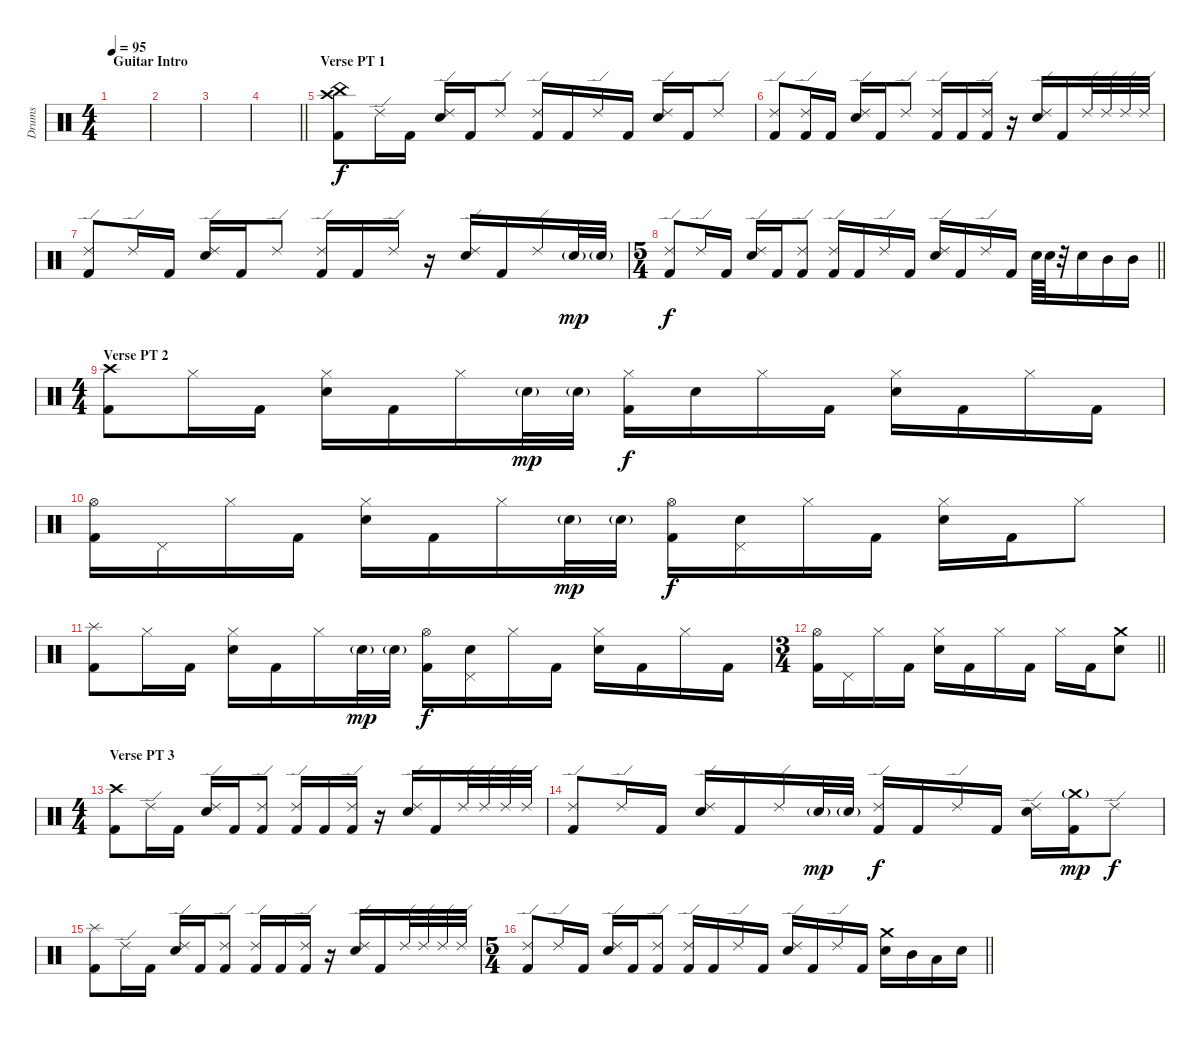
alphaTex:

\track ("Drums" "Drums") {instrument percussion}
\staff {score}
\articulation defaults
\ts (4 4)
\section ("" "Guitar Intro")
\tempo 95
\clef neutral
\ks c
|
|
|
\barLineRight lightlight
|
\section ("" "Verse PT 1")
("China (hit)" "Crash high (hit)" "Kick (hit) 2").8 "Ride (edge) 2".16 "Kick (hit) 2".16 ("Ride (edge) 2" "Electric Snare (hit)").16 "Kick (hit) 2".16 "Ride (edge) 2".8 ("Ride (edge) 2" "Kick (hit) 2").16 "Kick (hit) 2".16 "Ride (edge) 2".16 "Kick (hit) 2".16 ("Ride (edge) 2" "Electric Snare (hit)").16 "Kick (hit) 2".16 "Ride (edge) 2".8 |
("Ride (edge) 2" "Kick (hit) 2").8 ("Ride (edge) 2" "Kick (hit) 2").16 "Kick (hit) 2".16 ("Ride (edge) 2" "Electric Snare (hit)").16 "Kick (hit) 2".16 "Ride (edge) 2".8 ("Ride (edge) 2" "Kick (hit) 2").16 "Kick (hit) 2".16 ("Ride (edge) 2" "Kick (hit) 2").16 r.16 ("Ride (edge) 2" "Electric Snare (hit)").16 "Kick (hit) 2".16 "Ride (edge) 2".32 "Ride (edge) 2".32 "Ride (edge) 2".32 "Ride (edge) 2".32 |
("Ride (edge) 2" "Kick (hit) 2").8 "Ride (edge) 2".16 "Kick (hit) 2".16 ("Ride (edge) 2" "Electric Snare (hit)").16 "Kick (hit) 2".16 "Ride (edge) 2".8 ("Ride (edge) 2" "Kick (hit) 2").16 "Kick (hit) 2".16 "Ride (edge) 2".16 r.16 ("Ride (edge) 2" "Electric Snare (hit)").16 "Kick (hit) 2".16 "Ride (edge) 2".16 "Electric Snare (hit)"{g}.32{dy mp} "Electric Snare (hit)"{g}.32 |
\ts (5 4)
\barLineRight lightlight
("Ride (edge) 2" "Kick (hit) 2").8{dy f} "Ride (edge) 2".16 "Kick (hit) 2".16 ("Ride (edge) 2" "Electric Snare (hit)").16 "Kick (hit) 2".16 ("Ride (edge) 2" "Kick (hit) 2").8 ("Ride (edge) 2" "Kick (hit) 2").16 "Kick (hit) 2".16 "Ride (edge) 2".16 "Kick (hit) 2".16 ("Ride (edge) 2" "Electric Snare (hit)").16 "Kick (hit) 2".16 "Ride (edge) 2".16 "Kick (hit) 2".16 "Electric Snare (hit)".64 "Electric Snare (hit)".64 r.32 "Electric Snare (hit)".16 "Mid Tom (hit)".16 "Mid Tom (hit)".16 |
\ts (4 4)
\section ("" "Verse PT 2")
("Crash high (hit)" "Kick (hit) 2").8 "Hi-Hat (closed)".16 "Kick (hit) 2".16 ("Hi-Hat (closed)" "Electric Snare (hit)").16 "Kick (hit) 2".16 "Hi-Hat (closed)".16 "Electric Snare (hit)"{g}.32{dy mp} "Electric Snare (hit)"{g}.32 ("Hi-Hat (closed)" "Kick (hit) 2").16{dy f} "Electric Snare (hit)".16 "Hi-Hat (closed)".16 "Kick (hit) 2".16 ("Hi-Hat (closed)" "Electric Snare (hit)").16 "Kick (hit) 2".16 "Hi-Hat (closed)".16 "Kick (hit) 2".16 |
("Hi-Hat (open)" "Kick (hit) 2").16 "Pedal Hi-Hat (hit)".16 "Hi-Hat (closed)".16 "Kick (hit) 2".16 ("Hi-Hat (closed)" "Electric Snare (hit)").16 "Kick (hit) 2".16 "Hi-Hat (closed)".16 "Electric Snare (hit)"{g}.32{dy mp} "Electric Snare (hit)"{g}.32 ("Hi-Hat (open)" "Kick (hit) 2").16{dy f} ("Electric Snare (hit)" "Pedal Hi-Hat (hit)").16 "Hi-Hat (closed)".16 "Kick (hit) 2".16 ("Hi-Hat (closed)" "Electric Snare (hit)").16 "Kick (hit) 2".16 "Hi-Hat (closed)".8 |
("Splash (hit)" "Kick (hit) 2").8 "Hi-Hat (closed)".16 "Kick (hit) 2".16 ("Hi-Hat (closed)" "Electric Snare (hit)").16 "Kick (hit) 2".16 "Hi-Hat (closed)".16 "Electric Snare (hit)"{g}.32{dy mp} "Electric Snare (hit)"{g}.32 ("Hi-Hat (open)" "Kick (hit) 2").16{dy f} ("Electric Snare (hit)" "Pedal Hi-Hat (hit)").16 "Hi-Hat (closed)".16 "Kick (hit) 2".16 ("Hi-Hat (closed)" "Electric Snare (hit)").16 "Kick (hit) 2".16 "Hi-Hat (closed)".16 "Kick (hit) 2".16 |
\ts (3 4)
\barLineRight lightlight
("Hi-Hat (open)" "Kick (hit) 2").16 "Pedal Hi-Hat (hit)".16 "Hi-Hat (closed)".16 "Kick (hit) 2".16 ("Hi-Hat (closed)" "Electric Snare (hit)").16 "Kick (hit) 2".16 "Hi-Hat (closed)".16 "Kick (hit) 2".16 "Hi-Hat (closed)".16 "Kick (hit) 2".16 ("Crash medium (hit)" "Electric Snare (hit)").8 |
\ts (4 4)
\section ("" "Verse PT 3")
("Crash high (hit)" "Kick (hit) 2").8 "Ride (edge) 2".16 "Kick (hit) 2".16 ("Ride (edge) 2" "Electric Snare (hit)").16 "Kick (hit) 2".16 ("Ride (edge) 2" "Kick (hit) 2").8 ("Ride (edge) 2" "Kick (hit) 2").16 "Kick (hit) 2".16 ("Ride (edge) 2" "Kick (hit) 2").16 r.16 ("Ride (edge) 2" "Electric Snare (hit)").16 "Kick (hit) 2".16 "Ride (edge) 2".32 "Ride (edge) 2".32 "Ride (edge) 2".32 "Ride (edge) 2".32 |
("Ride (edge) 2" "Kick (hit) 2").8 "Ride (edge) 2".16 "Kick (hit) 2".16 ("Ride (edge) 2" "Electric Snare (hit)").16 "Kick (hit) 2".16 "Ride (edge) 2".16 "Electric Snare (hit)"{g}.32{dy mp} "Electric Snare (hit)"{g}.32 ("Ride (edge) 2" "Kick (hit) 2").16{dy f} "Kick (hit) 2".16 "Ride (edge) 2".16 "Kick (hit) 2".16 ("Ride (edge) 2" "Electric Snare (hit)").16 ("Crash medium (hit)"{g} "Kick (hit) 2").16{dy mp} "Ride (edge) 2".8{dy f} |
("Splash (hit)" "Kick (hit) 2").8 "Ride (edge) 2".16 "Kick (hit) 2".16 ("Ride (edge) 2" "Electric Snare (hit)").16 "Kick (hit) 2".16 ("Ride (edge) 2" "Kick (hit) 2").8 ("Ride (edge) 2" "Kick (hit) 2").16 "Kick (hit) 2".16 ("Ride (edge) 2" "Kick (hit) 2").16 r.16 ("Ride (edge) 2" "Electric Snare (hit)").16 "Kick (hit) 2".16 "Ride (edge) 2".32 "Ride (edge) 2".32 "Ride (edge) 2".32 "Ride (edge) 2".32 |
\ts (5 4)
\barLineRight lightlight
("Ride (edge) 2" "Kick (hit) 2").8 "Ride (edge) 2".16 "Kick (hit) 2".16 ("Ride (edge) 2" "Electric Snare (hit)").16 "Kick (hit) 2".16 ("Ride (edge) 2" "Kick (hit) 2").8 ("Ride (edge) 2" "Kick (hit) 2").16 "Kick (hit) 2".16 "Ride (edge) 2".16 "Kick (hit) 2".16 ("Ride (edge) 2" "Electric Snare (hit)").16 "Kick (hit) 2".16 "Ride (edge) 2".16 "Kick (hit) 2".16 ("Crash medium (hit)" "Electric Snare (hit)").16 "Mid Tom (hit)".16 "Low Tom (hit)".16 "Electric Snare (hit)".16
